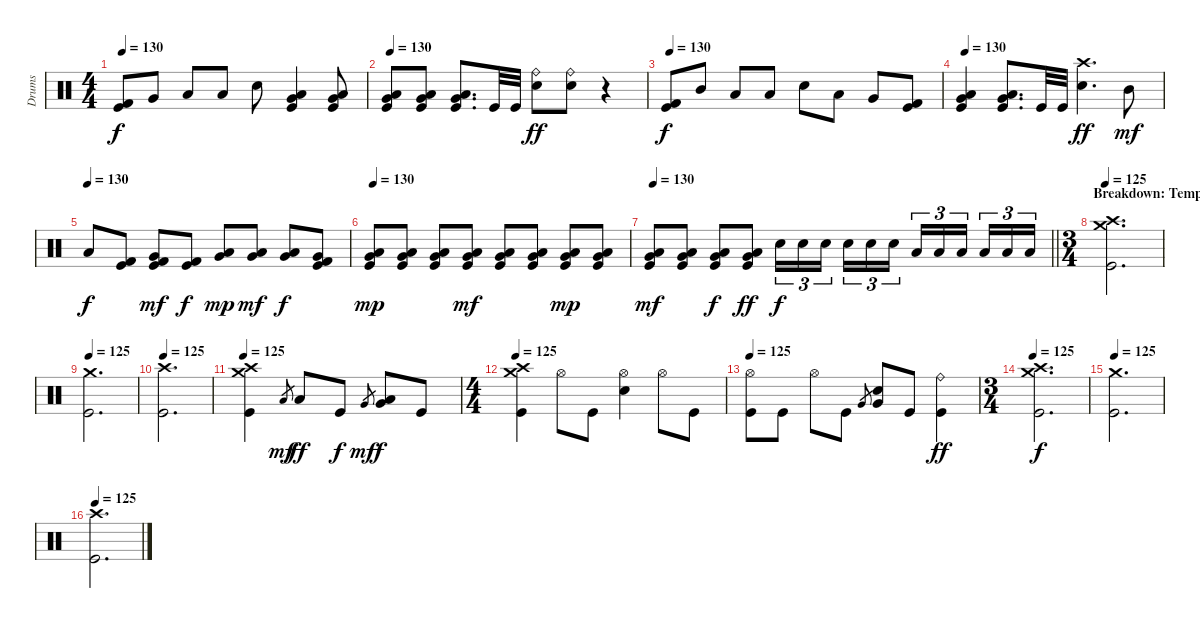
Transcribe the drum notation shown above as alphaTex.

\track ("Drums" "Drums") {instrument percussion}
\staff {score}
\articulation defaults
\ts (4 4)
\tempo 130
\clef neutral
\ks c
("Kick (hit) 2" "Kick (hit)").8{dy f} "Very Low Tom (hit)".8 "Low Floor Tom (hit)".8 "Low Floor Tom (hit)".8 "Electric Snare (hit)".8 ("Very Low Tom (hit)" "Low Floor Tom (hit)" "Kick (hit)").4 ("Very Low Tom (hit)" "Low Floor Tom (hit)" "Kick (hit)").8 |
\tempo 130
("Very Low Tom (hit)" "Low Floor Tom (hit)" "Kick (hit)").8 ("Very Low Tom (hit)" "Low Floor Tom (hit)" "Kick (hit)").8 ("Very Low Tom (hit)" "Low Floor Tom (hit)" "Kick (hit)").8{d} "Kick (hit)".32 "Kick (hit)".32 ("Ride (bell)" "Electric Snare (hit)").8{dy ff} ("Ride (bell)" "Electric Snare (hit)").8 r.4 |
\tempo 130
("Kick (hit) 2" "Kick (hit)").8{dy f} "Mid Tom (hit)".8 "Low Tom (hit)".8 "Low Tom (hit)".8 "Electric Snare (hit)".8 "Low Tom (hit)".8 "Very Low Tom (hit)".8 ("Kick (hit) 2" "Kick (hit)").8 |
\tempo 130
("Very Low Tom (hit)" "Low Floor Tom (hit)" "Kick (hit)").4 ("Very Low Tom (hit)" "Low Floor Tom (hit)" "Kick (hit)").8{d} "Kick (hit)".32 "Kick (hit)".32 ("Crash high (hit)" "Electric Snare (hit)").4{d dy ff} "Mid Tom (hit)".8{dy mf} |
\tempo (130)
"Low Tom (hit)".8{dy f} ("Kick (hit) 2" "Kick (hit)").8 ("Very Low Tom (hit)" "Kick (hit) 2" "Kick (hit)").8{dy mf} ("Kick (hit) 2" "Kick (hit)").8{dy f} ("Very Low Tom (hit)" "Low Floor Tom (hit)").8{dy mp} ("Very Low Tom (hit)" "Low Floor Tom (hit)").8{dy mf} ("Very Low Tom (hit)" "Low Floor Tom (hit)").8{dy f} ("Very Low Tom (hit)" "Kick (hit) 2" "Kick (hit)").8 |
\tempo 130
("Very Low Tom (hit)" "Low Floor Tom (hit)" "Kick (hit)").8{dy mp} ("Very Low Tom (hit)" "Low Floor Tom (hit)" "Kick (hit)").8 ("Very Low Tom (hit)" "Low Floor Tom (hit)" "Kick (hit)").8 ("Very Low Tom (hit)" "Low Floor Tom (hit)" "Kick (hit)").8{dy mf} ("Very Low Tom (hit)" "Low Floor Tom (hit)" "Kick (hit)").8 ("Very Low Tom (hit)" "Low Floor Tom (hit)" "Kick (hit)").8 ("Very Low Tom (hit)" "Low Floor Tom (hit)" "Kick (hit)").8{dy mp} ("Very Low Tom (hit)" "Low Floor Tom (hit)" "Kick (hit)").8 |
\tempo 130
\barLineRight lightlight
("Very Low Tom (hit)" "Low Floor Tom (hit)" "Kick (hit)").8{dy mf} ("Very Low Tom (hit)" "Low Floor Tom (hit)" "Kick (hit)").8 ("Very Low Tom (hit)" "Low Floor Tom (hit)" "Kick (hit)").8{dy f} ("Very Low Tom (hit)" "Low Floor Tom (hit)" "Kick (hit)").8{dy ff} "Electric Snare (hit)".16{tu (3 2) dy f} "Electric Snare (hit)".16{tu (3 2)} "Electric Snare (hit)".16{tu (3 2)} "Electric Snare (hit)".16{tu (3 2)} "Electric Snare (hit)".16{tu (3 2)} "Electric Snare (hit)".16{tu (3 2)} "Low Tom (hit)".16{tu (3 2)} "Low Tom (hit)".16{tu (3 2)} "Low Tom (hit)".16{tu (3 2)} "Low Tom (hit)".16{tu (3 2)} "Low Tom (hit)".16{tu (3 2)} "Low Tom (hit)".16{tu (3 2)} |
\ts (3 4)
\section ("" "Breakdown: Tempo 125")
\tempo 125
("Crash medium (hit)" "Crash high (hit)" "Kick (hit)").2{d} |
\tempo 125
("Crash medium (hit)" "Kick (hit)").2{d} |
\tempo 125
("Crash high (hit)" "Kick (hit)").2{d} |
\tempo 120
\tempo 125
("Crash medium (hit)" "Crash high (hit)" "Kick (hit)").4 "Low Tom (hit)".8{gr dy mf} "Low Tom (hit)".8{dy ff} "Kick (hit)".8{dy f} "Very Low Tom (hit)".8{gr dy mf} ("Very Low Tom (hit)" "Low Floor Tom (hit)").8{dy f} "Kick (hit)".8 |
\ts (4 4)
\tempo 125
("Crash medium (hit)" "Crash high (hit)" "Kick (hit)").4 "Hi-Hat (open)".8 "Kick (hit)".8 ("Hi-Hat (open)" "Electric Snare (hit)").4 "Hi-Hat (open)".8 "Kick (hit)".8 |
\tempo 125
("Hi-Hat (open)" "Kick (hit)").8 "Kick (hit)".8 "Hi-Hat (open)".8 "Kick (hit)".8 "Very Low Tom (hit)".8{gr} ("Electric Snare (hit)" "Very Low Tom (hit)").8 "Kick (hit)".8 ("Ride (bell)" "Kick (hit)").4{dy ff} |
\ts (3 4)
\tempo 125
("Crash medium (hit)" "Crash high (hit)" "Kick (hit)").2{d dy f} |
\tempo 125
("Crash medium (hit)" "Kick (hit)").2{d} |
\tempo 125
("Crash high (hit)" "Kick (hit)").2{d}
